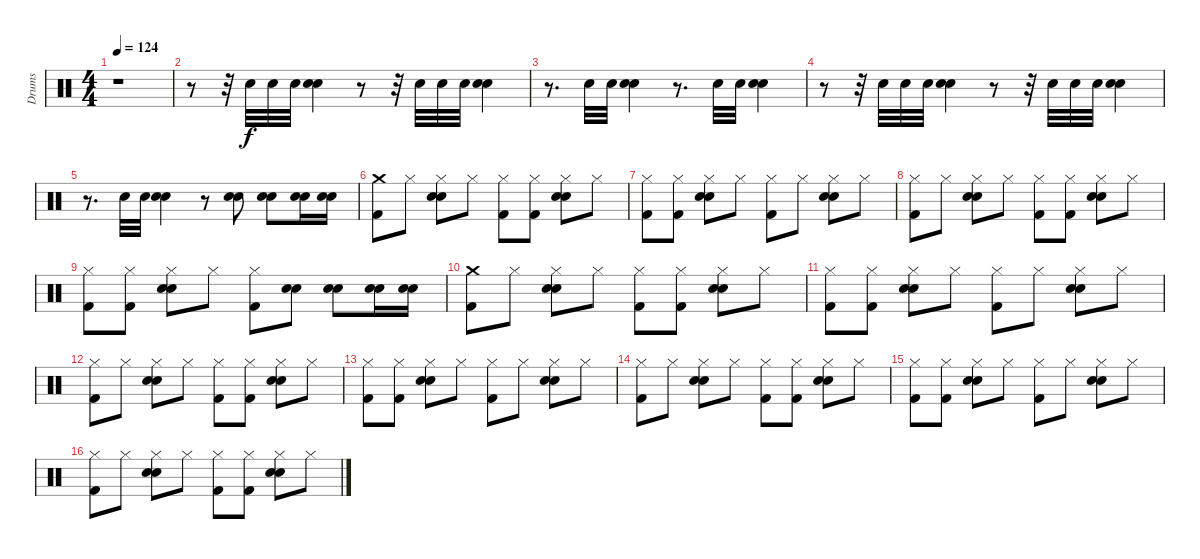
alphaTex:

\track ("Drums" "Drums") {instrument percussion}
\staff {score}
\articulation defaults
\ts (4 4)
\tempo 124
\clef neutral
\ks c
r.1{dy f} |
r.8 r.32 "Snare (hit) 2".32 "Snare (hit) 2".32 "Snare (hit) 2".32 ("Snare (hit) 2" "Electric Snare (hit)").4 r.8 r.32 "Snare (hit) 2".32 "Snare (hit) 2".32 "Snare (hit) 2".32 ("Snare (hit) 2" "Electric Snare (hit)").4 |
r.8{d} "Snare (hit) 2".32 "Snare (hit) 2".32 ("Snare (hit) 2" "Electric Snare (hit)").4 r.8{d} "Snare (hit) 2".32 "Snare (hit) 2".32 ("Snare (hit) 2" "Electric Snare (hit)").4 |
r.8 r.32 "Snare (hit) 2".32 "Snare (hit) 2".32 "Snare (hit) 2".32 ("Snare (hit) 2" "Electric Snare (hit)").4 r.8 r.32 "Snare (hit) 2".32 "Snare (hit) 2".32 "Snare (hit) 2".32 ("Snare (hit) 2" "Electric Snare (hit)").4 |
r.8{d} "Snare (hit) 2".32 "Snare (hit) 2".32 ("Snare (hit) 2" "Electric Snare (hit)").4 r.8 ("Snare (hit) 2" "Electric Snare (hit)").8 ("Snare (hit) 2" "Electric Snare (hit)").8 ("Snare (hit) 2" "Electric Snare (hit)").16 ("Snare (hit) 2" "Electric Snare (hit)").16 |
("Kick (hit) 2" "Crash medium (hit)").8 "Hi-Hat (closed)".8 ("Snare (hit) 2" "Electric Snare (hit)" "Hi-Hat (closed)").8 "Hi-Hat (closed)".8 ("Kick (hit) 2" "Hi-Hat (closed)").8 ("Kick (hit) 2" "Hi-Hat (closed)").8 ("Snare (hit) 2" "Electric Snare (hit)" "Hi-Hat (closed)").8 "Hi-Hat (closed)".8 |
("Kick (hit) 2" "Hi-Hat (closed)").8 ("Kick (hit) 2" "Hi-Hat (closed)").8 ("Snare (hit) 2" "Electric Snare (hit)" "Hi-Hat (closed)").8 "Hi-Hat (closed)".8 ("Kick (hit) 2" "Hi-Hat (closed)").8 "Hi-Hat (closed)".8 ("Snare (hit) 2" "Electric Snare (hit)" "Hi-Hat (closed)").8 "Hi-Hat (closed)".8 |
("Hi-Hat (closed)" "Kick (hit) 2").8 "Hi-Hat (closed)".8 ("Snare (hit) 2" "Electric Snare (hit)" "Hi-Hat (closed)").8 "Hi-Hat (closed)".8 ("Kick (hit) 2" "Hi-Hat (closed)").8 ("Kick (hit) 2" "Hi-Hat (closed)").8 ("Snare (hit) 2" "Electric Snare (hit)" "Hi-Hat (closed)").8 "Hi-Hat (closed)".8 |
("Kick (hit) 2" "Hi-Hat (closed)").8 ("Kick (hit) 2" "Hi-Hat (closed)").8 ("Snare (hit) 2" "Electric Snare (hit)" "Hi-Hat (closed)").8 "Hi-Hat (closed)".8 ("Kick (hit) 2" "Hi-Hat (closed)").8 ("Snare (hit) 2" "Electric Snare (hit)").8 ("Snare (hit) 2" "Electric Snare (hit)").8 ("Snare (hit) 2" "Electric Snare (hit)").16 ("Electric Snare (hit)" "Snare (hit) 2").16 |
("Kick (hit) 2" "Crash medium (hit)").8 "Hi-Hat (closed)".8 ("Electric Snare (hit)" "Snare (hit) 2" "Hi-Hat (closed)").8 "Hi-Hat (closed)".8 ("Kick (hit) 2" "Hi-Hat (closed)").8 ("Kick (hit) 2" "Hi-Hat (closed)").8 ("Electric Snare (hit)" "Snare (hit) 2" "Hi-Hat (closed)").8 "Hi-Hat (closed)".8 |
("Kick (hit) 2" "Hi-Hat (closed)").8 ("Kick (hit) 2" "Hi-Hat (closed)").8 ("Snare (hit) 2" "Electric Snare (hit)" "Hi-Hat (closed)").8 "Hi-Hat (closed)".8 ("Kick (hit) 2" "Hi-Hat (closed)").8 "Hi-Hat (closed)".8 ("Snare (hit) 2" "Electric Snare (hit)" "Hi-Hat (closed)").8 "Hi-Hat (closed)".8 |
("Hi-Hat (closed)" "Kick (hit) 2").8 "Hi-Hat (closed)".8 ("Snare (hit) 2" "Electric Snare (hit)" "Hi-Hat (closed)").8 "Hi-Hat (closed)".8 ("Kick (hit) 2" "Hi-Hat (closed)").8 ("Kick (hit) 2" "Hi-Hat (closed)").8 ("Snare (hit) 2" "Electric Snare (hit)" "Hi-Hat (closed)").8 "Hi-Hat (closed)".8 |
("Kick (hit) 2" "Hi-Hat (closed)").8 ("Kick (hit) 2" "Hi-Hat (closed)").8 ("Snare (hit) 2" "Electric Snare (hit)" "Hi-Hat (closed)").8 "Hi-Hat (closed)".8 ("Kick (hit) 2" "Hi-Hat (closed)").8 "Hi-Hat (closed)".8 ("Snare (hit) 2" "Electric Snare (hit)" "Hi-Hat (closed)").8 "Hi-Hat (closed)".8 |
("Hi-Hat (closed)" "Kick (hit) 2").8 "Hi-Hat (closed)".8 ("Snare (hit) 2" "Electric Snare (hit)" "Hi-Hat (closed)").8 "Hi-Hat (closed)".8 ("Kick (hit) 2" "Hi-Hat (closed)").8 ("Kick (hit) 2" "Hi-Hat (closed)").8 ("Snare (hit) 2" "Electric Snare (hit)" "Hi-Hat (closed)").8 "Hi-Hat (closed)".8 |
("Kick (hit) 2" "Hi-Hat (closed)").8 ("Kick (hit) 2" "Hi-Hat (closed)").8 ("Snare (hit) 2" "Electric Snare (hit)" "Hi-Hat (closed)").8 "Hi-Hat (closed)".8 ("Kick (hit) 2" "Hi-Hat (closed)").8 "Hi-Hat (closed)".8 ("Snare (hit) 2" "Electric Snare (hit)" "Hi-Hat (closed)").8 "Hi-Hat (closed)".8 |
("Hi-Hat (closed)" "Kick (hit) 2").8 "Hi-Hat (closed)".8 ("Snare (hit) 2" "Electric Snare (hit)" "Hi-Hat (closed)").8 "Hi-Hat (closed)".8 ("Kick (hit) 2" "Hi-Hat (closed)").8 ("Kick (hit) 2" "Hi-Hat (closed)").8 ("Snare (hit) 2" "Electric Snare (hit)" "Hi-Hat (closed)").8 "Hi-Hat (closed)".8
